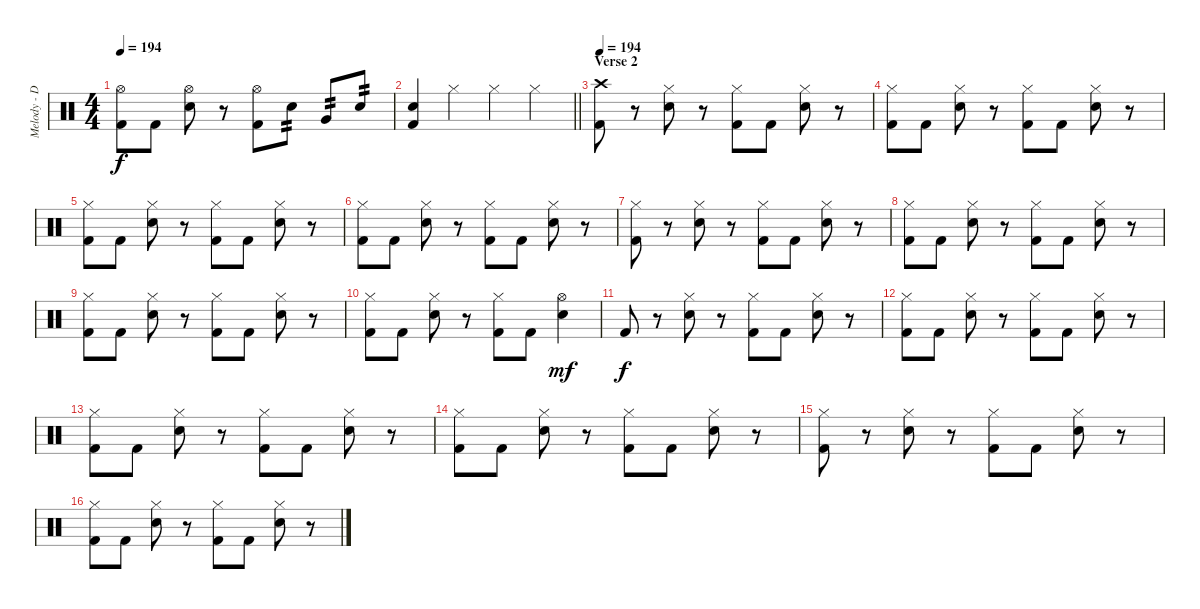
\track ("Melody - Drums" "Melody - D") {instrument percussion}
\staff {score}
\articulation defaults
\ts (4 4)
\tempo 194
\clef neutral
\ks c
("Hi-Hat (open)" "Kick (hit) 2").8{dy f} "Kick (hit) 2".8 ("Hi-Hat (open)" "Electric Snare (hit)").8 r.8 ("Hi-Hat (open)" "Kick (hit) 2").8 "Electric Snare (hit)".8{tp 2} "Very Low Tom (hit)".8{tp 2} "Electric Snare (hit)".8{tp 2} |
\barLineRight lightlight
("Electric Snare (hit)" "Kick (hit) 2").4 "Hi-Hat (closed)".4 "Hi-Hat (closed)".4 "Hi-Hat (closed)".4 |
\section ("" "Verse 2")
\tempo 194
("Crash high (hit)" "Kick (hit) 2").8 r.8 ("Hi-Hat (closed)" "Electric Snare (hit)").8 r.8 ("Hi-Hat (closed)" "Kick (hit) 2").8 "Kick (hit) 2".8 ("Hi-Hat (closed)" "Electric Snare (hit)").8 r.8 |
("Hi-Hat (closed)" "Kick (hit) 2").8 "Kick (hit) 2".8 ("Hi-Hat (closed)" "Electric Snare (hit)").8 r.8 ("Hi-Hat (closed)" "Kick (hit) 2").8 "Kick (hit) 2".8 ("Hi-Hat (closed)" "Electric Snare (hit)").8 r.8 |
("Hi-Hat (closed)" "Kick (hit) 2").8 "Kick (hit) 2".8 ("Hi-Hat (closed)" "Electric Snare (hit)").8 r.8 ("Hi-Hat (closed)" "Kick (hit) 2").8 "Kick (hit) 2".8 ("Hi-Hat (closed)" "Electric Snare (hit)").8 r.8 |
("Hi-Hat (closed)" "Kick (hit) 2").8 "Kick (hit) 2".8 ("Hi-Hat (closed)" "Electric Snare (hit)").8 r.8 ("Hi-Hat (closed)" "Kick (hit) 2").8 "Kick (hit) 2".8 ("Hi-Hat (closed)" "Electric Snare (hit)").8 r.8 |
("Hi-Hat (closed)" "Kick (hit) 2").8 r.8 ("Hi-Hat (closed)" "Electric Snare (hit)").8 r.8 ("Hi-Hat (closed)" "Kick (hit) 2").8 "Kick (hit) 2".8 ("Hi-Hat (closed)" "Electric Snare (hit)").8 r.8 |
("Hi-Hat (closed)" "Kick (hit) 2").8 "Kick (hit) 2".8 ("Hi-Hat (closed)" "Electric Snare (hit)").8 r.8 ("Hi-Hat (closed)" "Kick (hit) 2").8 "Kick (hit) 2".8 ("Hi-Hat (closed)" "Electric Snare (hit)").8 r.8 |
("Hi-Hat (closed)" "Kick (hit) 2").8 "Kick (hit) 2".8 ("Hi-Hat (closed)" "Electric Snare (hit)").8 r.8 ("Hi-Hat (closed)" "Kick (hit) 2").8 "Kick (hit) 2".8 ("Hi-Hat (closed)" "Electric Snare (hit)").8 r.8 |
("Hi-Hat (closed)" "Kick (hit) 2").8 "Kick (hit) 2".8 ("Hi-Hat (closed)" "Electric Snare (hit)").8 r.8 ("Hi-Hat (closed)" "Kick (hit) 2").8 "Kick (hit) 2".8 ("Hi-Hat (open)" "Electric Snare (hit)").4{dy mf} |
"Kick (hit) 2".8{dy f} r.8 ("Hi-Hat (closed)" "Electric Snare (hit)").8 r.8 ("Hi-Hat (closed)" "Kick (hit) 2").8 "Kick (hit) 2".8 ("Hi-Hat (closed)" "Electric Snare (hit)").8 r.8 |
("Hi-Hat (closed)" "Kick (hit) 2").8 "Kick (hit) 2".8 ("Hi-Hat (closed)" "Electric Snare (hit)").8 r.8 ("Hi-Hat (closed)" "Kick (hit) 2").8 "Kick (hit) 2".8 ("Hi-Hat (closed)" "Electric Snare (hit)").8 r.8 |
("Hi-Hat (closed)" "Kick (hit) 2").8 "Kick (hit) 2".8 ("Hi-Hat (closed)" "Electric Snare (hit)").8 r.8 ("Hi-Hat (closed)" "Kick (hit) 2").8 "Kick (hit) 2".8 ("Hi-Hat (closed)" "Electric Snare (hit)").8 r.8 |
("Hi-Hat (closed)" "Kick (hit) 2").8 "Kick (hit) 2".8 ("Hi-Hat (closed)" "Electric Snare (hit)").8 r.8 ("Hi-Hat (closed)" "Kick (hit) 2").8 "Kick (hit) 2".8 ("Hi-Hat (closed)" "Electric Snare (hit)").8 r.8 |
("Hi-Hat (closed)" "Kick (hit) 2").8 r.8 ("Hi-Hat (closed)" "Electric Snare (hit)").8 r.8 ("Hi-Hat (closed)" "Kick (hit) 2").8 "Kick (hit) 2".8 ("Hi-Hat (closed)" "Electric Snare (hit)").8 r.8 |
("Hi-Hat (closed)" "Kick (hit) 2").8 "Kick (hit) 2".8 ("Hi-Hat (closed)" "Electric Snare (hit)").8 r.8 ("Hi-Hat (closed)" "Kick (hit) 2").8 "Kick (hit) 2".8 ("Hi-Hat (closed)" "Electric Snare (hit)").8 r.8
